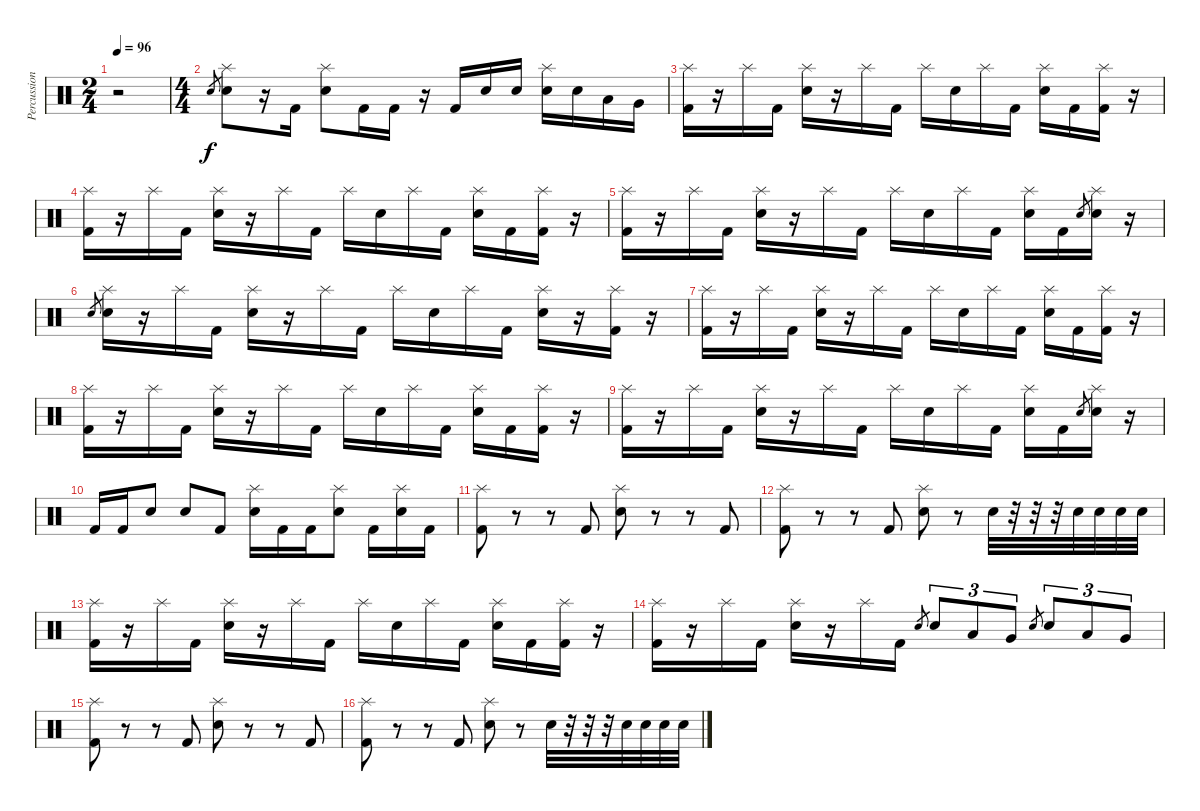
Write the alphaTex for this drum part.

\track ("Percussion" "Percussion") {instrument percussion}
\staff {score}
\articulation defaults
\ts (2 4)
\tempo 96
\clef neutral
\ks c
r.2{dy f} |
\ts (4 4)
"Snare (hit) 2".8{gr} ("Splash (hit)" "Snare (hit) 2").8 r.16 "Kick (hit) 2".16 ("Splash (hit)" "Snare (hit) 2").8 "Kick (hit) 2".16 "Kick (hit) 2".16 r.16 "Kick (hit) 2".16 "Snare (hit) 2".16 "Snare (hit) 2".16 ("Splash (hit)" "Snare (hit) 2").16 "Snare (hit) 2".16 "Low Tom (hit)".16 "Very Low Tom (hit)".16 |
("Splash (hit)" "Kick (hit) 2").16 r.16 "Splash (hit)".16 "Kick (hit) 2".16 ("Splash (hit)" "Snare (hit) 2").16 r.16 "Splash (hit)".16 "Kick (hit) 2".16 "Splash (hit)".16 "Snare (hit) 2".16 "Splash (hit)".16 "Kick (hit) 2".16 ("Splash (hit)" "Snare (hit) 2").16 "Kick (hit) 2".16 ("Splash (hit)" "Kick (hit) 2").16 r.16 |
("Splash (hit)" "Kick (hit) 2").16 r.16 "Splash (hit)".16 "Kick (hit) 2".16 ("Splash (hit)" "Snare (hit) 2").16 r.16 "Splash (hit)".16 "Kick (hit) 2".16 "Splash (hit)".16 "Snare (hit) 2".16 "Splash (hit)".16 "Kick (hit) 2".16 ("Splash (hit)" "Snare (hit) 2").16 "Kick (hit) 2".16 ("Splash (hit)" "Kick (hit) 2").16 r.16 |
("Splash (hit)" "Kick (hit) 2").16 r.16 "Splash (hit)".16 "Kick (hit) 2".16 ("Splash (hit)" "Snare (hit) 2").16 r.16 "Splash (hit)".16 "Kick (hit) 2".16 "Splash (hit)".16 "Snare (hit) 2".16 "Splash (hit)".16 "Kick (hit) 2".16 ("Splash (hit)" "Snare (hit) 2").16 "Kick (hit) 2".16 "Snare (hit) 2".8{gr} ("Splash (hit)" "Snare (hit) 2").16 r.16 |
"Snare (hit) 2".8{gr} ("Splash (hit)" "Snare (hit) 2").16 r.16 "Splash (hit)".16 "Kick (hit) 2".16 ("Splash (hit)" "Snare (hit) 2").16 r.16 "Splash (hit)".16 "Kick (hit) 2".16 "Splash (hit)".16 "Snare (hit) 2".16 "Splash (hit)".16 "Kick (hit) 2".16 ("Splash (hit)" "Snare (hit) 2").16 r.16 ("Splash (hit)" "Kick (hit) 2").16 r.16 |
("Splash (hit)" "Kick (hit) 2").16 r.16 "Splash (hit)".16 "Kick (hit) 2".16 ("Splash (hit)" "Snare (hit) 2").16 r.16 "Splash (hit)".16 "Kick (hit) 2".16 "Splash (hit)".16 "Snare (hit) 2".16 "Splash (hit)".16 "Kick (hit) 2".16 ("Splash (hit)" "Snare (hit) 2").16 "Kick (hit) 2".16 ("Splash (hit)" "Kick (hit) 2").16 r.16 |
("Splash (hit)" "Kick (hit) 2").16 r.16 "Splash (hit)".16 "Kick (hit) 2".16 ("Splash (hit)" "Snare (hit) 2").16 r.16 "Splash (hit)".16 "Kick (hit) 2".16 "Splash (hit)".16 "Snare (hit) 2".16 "Splash (hit)".16 "Kick (hit) 2".16 ("Splash (hit)" "Snare (hit) 2").16 "Kick (hit) 2".16 ("Splash (hit)" "Kick (hit) 2").16 r.16 |
("Splash (hit)" "Kick (hit) 2").16 r.16 "Splash (hit)".16 "Kick (hit) 2".16 ("Splash (hit)" "Snare (hit) 2").16 r.16 "Splash (hit)".16 "Kick (hit) 2".16 "Splash (hit)".16 "Snare (hit) 2".16 "Splash (hit)".16 "Kick (hit) 2".16 ("Splash (hit)" "Snare (hit) 2").16 "Kick (hit) 2".16 "Snare (hit) 2".8{gr} ("Splash (hit)" "Snare (hit) 2").16 r.16 |
"Kick (hit) 2".16 "Kick (hit) 2".16 "Snare (hit) 2".8 "Snare (hit) 2".8 "Kick (hit) 2".8 ("Splash (hit)" "Snare (hit) 2").16 "Kick (hit) 2".16 "Kick (hit) 2".16 ("Splash (hit)" "Snare (hit) 2").8 "Kick (hit) 2".16 ("Splash (hit)" "Snare (hit) 2").16 "Kick (hit) 2".16 |
("Splash (hit)" "Kick (hit) 2").8 r.8 r.8 "Kick (hit) 2".8 ("Splash (hit)" "Snare (hit) 2").8 r.8 r.8 "Kick (hit) 2".8 |
("Splash (hit)" "Kick (hit) 2").8 r.8 r.8 "Kick (hit) 2".8 ("Splash (hit)" "Snare (hit) 2").8 r.8 "Snare (hit) 2".32 r.32 r.32 r.32 "Snare (hit) 2".32 "Snare (hit) 2".32 "Snare (hit) 2".32 "Snare (hit) 2".32 |
("Splash (hit)" "Kick (hit) 2").16 r.16 "Splash (hit)".16 "Kick (hit) 2".16 ("Splash (hit)" "Snare (hit) 2").16 r.16 "Splash (hit)".16 "Kick (hit) 2".16 "Splash (hit)".16 "Snare (hit) 2".16 "Splash (hit)".16 "Kick (hit) 2".16 ("Splash (hit)" "Snare (hit) 2").16 "Kick (hit) 2".16 ("Splash (hit)" "Kick (hit) 2").16 r.16 |
("Splash (hit)" "Kick (hit) 2").16 r.16 "Splash (hit)".16 "Kick (hit) 2".16 ("Splash (hit)" "Snare (hit) 2").16 r.16 "Splash (hit)".16 "Kick (hit) 2".16 "Snare (hit) 2".8{gr} "Snare (hit) 2".8{tu (3 2)} "Low Tom (hit)".8{tu (3 2)} "Very Low Tom (hit)".8{tu (3 2)} "Snare (hit) 2".8{gr} "Snare (hit) 2".8{tu (3 2)} "Low Tom (hit)".8{tu (3 2)} "Very Low Tom (hit)".8{tu (3 2)} |
("Splash (hit)" "Kick (hit) 2").8 r.8 r.8 "Kick (hit) 2".8 ("Splash (hit)" "Snare (hit) 2").8 r.8 r.8 "Kick (hit) 2".8 |
("Splash (hit)" "Kick (hit) 2").8 r.8 r.8 "Kick (hit) 2".8 ("Splash (hit)" "Snare (hit) 2").8 r.8 "Snare (hit) 2".32 r.32 r.32 r.32 "Snare (hit) 2".32 "Snare (hit) 2".32 "Snare (hit) 2".32 "Snare (hit) 2".32
